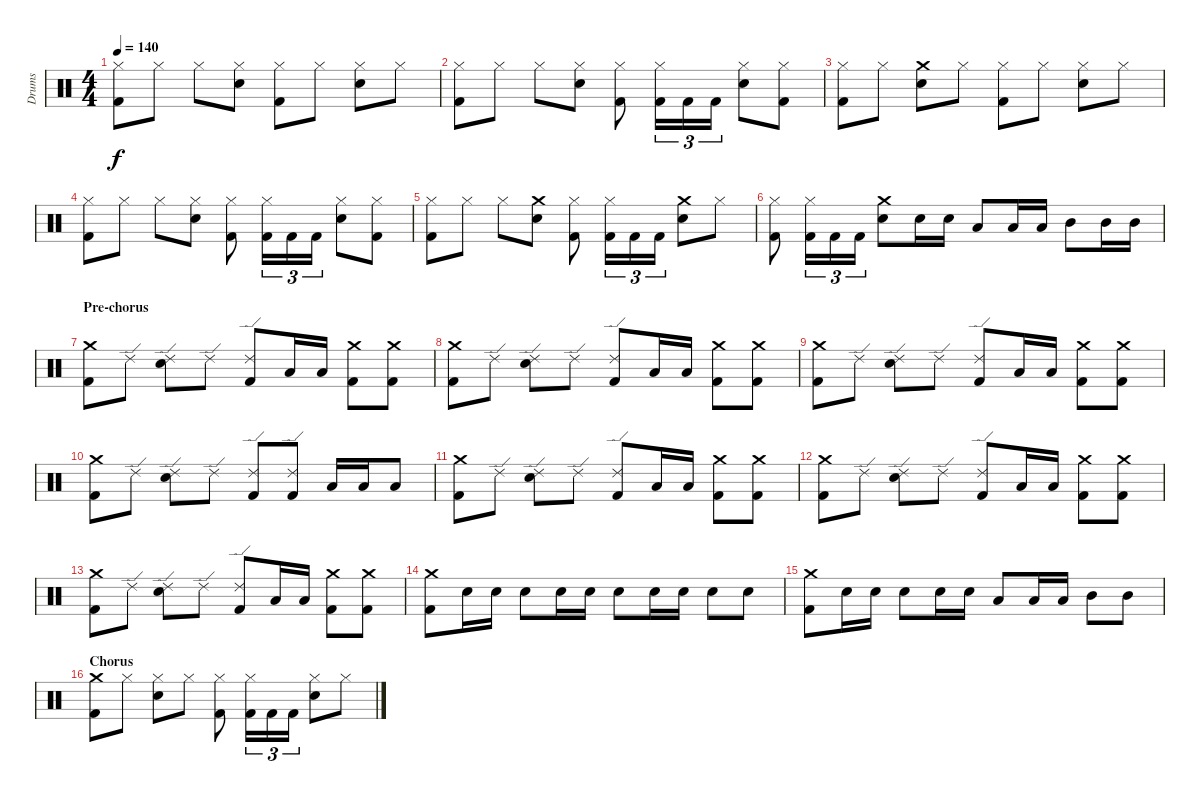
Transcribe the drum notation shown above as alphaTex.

\track ("Drums" "Drums") {instrument percussion}
\staff {score}
\articulation defaults
\ts (4 4)
\tempo 140
\clef neutral
\ks c
("Hi-Hat (closed)" "Kick (hit) 2").8{dy f} "Hi-Hat (closed)".8 "Hi-Hat (closed)".8 ("Snare (hit) 2" "Hi-Hat (closed)").8 ("Hi-Hat (closed)" "Kick (hit) 2").8 "Hi-Hat (closed)".8 ("Snare (hit) 2" "Hi-Hat (closed)").8 "Hi-Hat (closed)".8 |
("Kick (hit) 2" "Hi-Hat (closed)").8 "Hi-Hat (closed)".8 "Hi-Hat (closed)".8 ("Snare (hit) 2" "Hi-Hat (closed)").8 ("Kick (hit) 2" "Hi-Hat (closed)").8 ("Kick (hit) 2" "Hi-Hat (closed)").16{tu (3 2)} "Kick (hit) 2".16{tu (3 2)} "Kick (hit) 2".16{tu (3 2)} ("Snare (hit) 2" "Hi-Hat (closed)").8 ("Kick (hit) 2" "Hi-Hat (closed)").8 |
("Hi-Hat (closed)" "Kick (hit) 2").8 "Hi-Hat (closed)".8 ("Crash medium (hit)" "Snare (hit) 2").8 "Hi-Hat (closed)".8 ("Hi-Hat (closed)" "Kick (hit) 2").8 "Hi-Hat (closed)".8 ("Snare (hit) 2" "Hi-Hat (closed)").8 "Hi-Hat (closed)".8 |
("Kick (hit) 2" "Hi-Hat (closed)").8 "Hi-Hat (closed)".8 "Hi-Hat (closed)".8 ("Snare (hit) 2" "Hi-Hat (closed)").8 ("Kick (hit) 2" "Hi-Hat (closed)").8 ("Kick (hit) 2" "Hi-Hat (closed)").16{tu (3 2)} "Kick (hit) 2".16{tu (3 2)} "Kick (hit) 2".16{tu (3 2)} ("Snare (hit) 2" "Hi-Hat (closed)").8 ("Kick (hit) 2" "Hi-Hat (closed)").8 |
("Kick (hit) 2" "Hi-Hat (closed)").8 "Hi-Hat (closed)".8 "Hi-Hat (closed)".8 ("Crash medium (hit)" "Snare (hit) 2").8 ("Kick (hit) 2" "Hi-Hat (closed)").8 ("Kick (hit) 2" "Hi-Hat (closed)").16{tu (3 2)} "Kick (hit) 2".16{tu (3 2)} "Kick (hit) 2".16{tu (3 2)} ("Crash medium (hit)" "Snare (hit) 2").8 "Hi-Hat (closed)".8 |
("Hi-Hat (closed)" "Kick (hit) 2").8 ("Hi-Hat (closed)" "Kick (hit) 2").16{tu (3 2)} "Kick (hit) 2".16{tu (3 2)} "Kick (hit) 2".16{tu (3 2)} ("Snare (hit) 2" "Crash medium (hit)").8 "Snare (hit) 2".16 "Snare (hit) 2".16 "Low Tom (hit)".8 "Low Tom (hit)".16 "Low Tom (hit)".16 "Mid Tom (hit)".8 "Mid Tom (hit)".16 "Mid Tom (hit)".16 |
\section ("" "Pre-chorus")
("Crash medium (hit)" "Kick (hit) 2").8 "Ride (edge) 2".8 ("Snare (hit) 2" "Ride (edge) 2").8 "Ride (edge) 2".8 ("Ride (edge) 2" "Kick (hit) 2").8 "Low Tom (hit)".16 "Low Tom (hit)".16 ("Crash medium (hit)" "Kick (hit) 2").8 ("Crash medium (hit)" "Kick (hit) 2").8 |
("Crash medium (hit)" "Kick (hit) 2").8 "Ride (edge) 2".8 ("Snare (hit) 2" "Ride (edge) 2").8 "Ride (edge) 2".8 ("Ride (edge) 2" "Kick (hit) 2").8 "Low Tom (hit)".16 "Low Tom (hit)".16 ("Crash medium (hit)" "Kick (hit) 2").8 ("Crash medium (hit)" "Kick (hit) 2").8 |
("Crash medium (hit)" "Kick (hit) 2").8 "Ride (edge) 2".8 ("Snare (hit) 2" "Ride (edge) 2").8 "Ride (edge) 2".8 ("Ride (edge) 2" "Kick (hit) 2").8 "Low Tom (hit)".16 "Low Tom (hit)".16 ("Crash medium (hit)" "Kick (hit) 2").8 ("Crash medium (hit)" "Kick (hit) 2").8 |
("Crash medium (hit)" "Kick (hit) 2").8 "Ride (edge) 2".8 ("Snare (hit) 2" "Ride (edge) 2").8 "Ride (edge) 2".8 ("Kick (hit) 2" "Ride (edge) 2").8 ("Ride (edge) 2" "Kick (hit) 2").8 "Low Tom (hit)".16 "Low Tom (hit)".16 "Low Tom (hit)".8 |
("Crash medium (hit)" "Kick (hit) 2").8 "Ride (edge) 2".8 ("Snare (hit) 2" "Ride (edge) 2").8 "Ride (edge) 2".8 ("Ride (edge) 2" "Kick (hit) 2").8 "Low Tom (hit)".16 "Low Tom (hit)".16 ("Crash medium (hit)" "Kick (hit) 2").8 ("Crash medium (hit)" "Kick (hit) 2").8 |
("Crash medium (hit)" "Kick (hit) 2").8 "Ride (edge) 2".8 ("Snare (hit) 2" "Ride (edge) 2").8 "Ride (edge) 2".8 ("Ride (edge) 2" "Kick (hit) 2").8 "Low Tom (hit)".16 "Low Tom (hit)".16 ("Crash medium (hit)" "Kick (hit) 2").8 ("Crash medium (hit)" "Kick (hit) 2").8 |
("Crash medium (hit)" "Kick (hit) 2").8 "Ride (edge) 2".8 ("Snare (hit) 2" "Ride (edge) 2").8 "Ride (edge) 2".8 ("Ride (edge) 2" "Kick (hit) 2").8 "Low Tom (hit)".16 "Low Tom (hit)".16 ("Crash medium (hit)" "Kick (hit) 2").8 ("Crash medium (hit)" "Kick (hit) 2").8 |
("Kick (hit) 2" "Crash medium (hit)").8 "Snare (hit) 2".16 "Snare (hit) 2".16 "Snare (hit) 2".8 "Snare (hit) 2".16 "Snare (hit) 2".16 "Snare (hit) 2".8 "Snare (hit) 2".16 "Snare (hit) 2".16 "Snare (hit) 2".8 "Snare (hit) 2".8 |
("Crash medium (hit)" "Kick (hit) 2").8 "Snare (hit) 2".16 "Snare (hit) 2".16 "Snare (hit) 2".8 "Snare (hit) 2".16 "Snare (hit) 2".16 "Low Tom (hit)".8 "Low Tom (hit)".16 "Low Tom (hit)".16 "Mid Tom (hit)".8 "Mid Tom (hit)".8 |
\section ("" "Chorus")
("Crash medium (hit)" "Kick (hit) 2").8 "Hi-Hat (closed)".8 ("Snare (hit) 2" "Hi-Hat (closed)").8 "Hi-Hat (closed)".8 ("Kick (hit) 2" "Hi-Hat (closed)").8 ("Kick (hit) 2" "Hi-Hat (closed)").16{tu (3 2)} "Kick (hit) 2".16{tu (3 2)} "Kick (hit) 2".16{tu (3 2)} ("Snare (hit) 2" "Hi-Hat (closed)").8 "Hi-Hat (closed)".8
